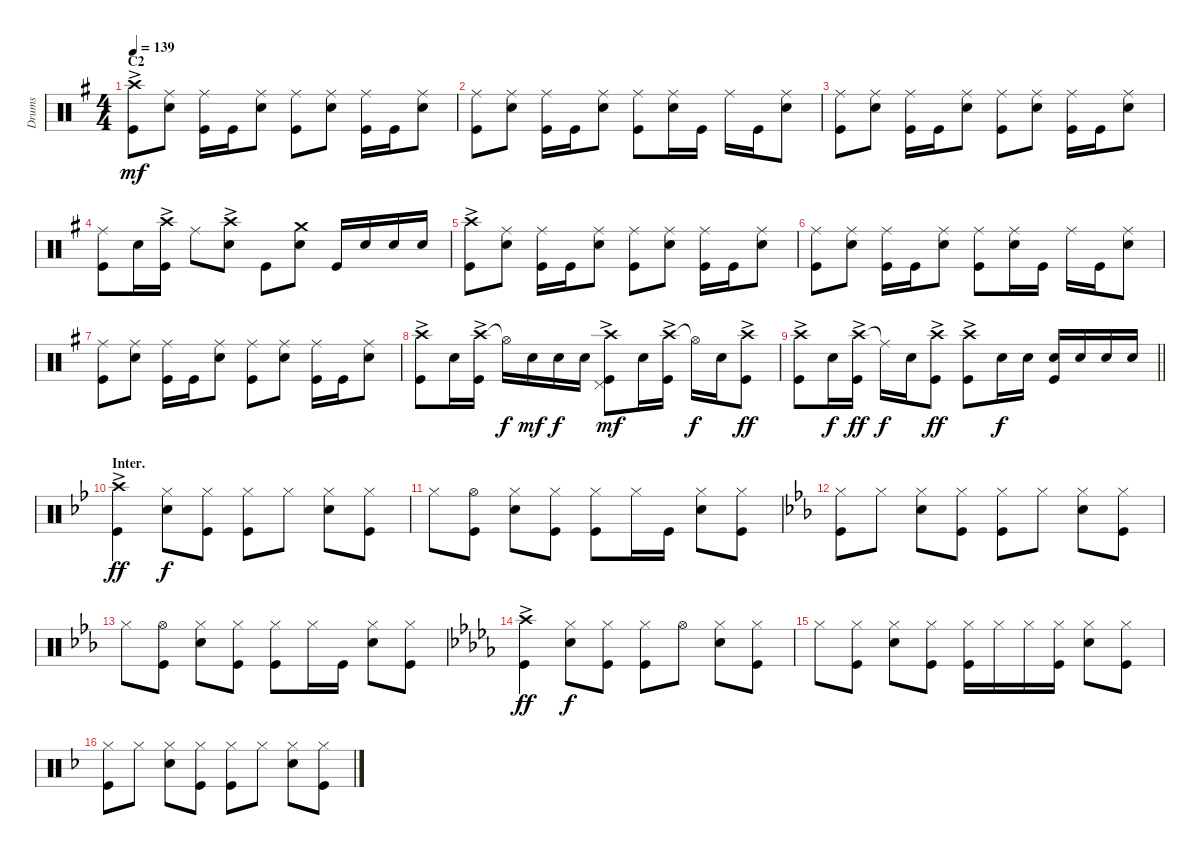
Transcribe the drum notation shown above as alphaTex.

\track ("Drums" "Drums") {instrument percussion}
\staff {score}
\articulation defaults
\ts (4 4)
\section ("" "C2")
\tempo 139
\clef neutral
\ks g
("Crash high (hit)"{ac} "Kick (hit)").8{dy mf} ("Ride (middle)" "Snare (hit) 2").8 ("Ride (middle)" "Kick (hit)").16 "Kick (hit)".16 ("Ride (middle)" "Snare (hit) 2").8 ("Ride (middle)" "Kick (hit)").8 ("Ride (middle)" "Snare (hit) 2").8 ("Ride (middle)" "Kick (hit)").16 "Kick (hit)".16 ("Ride (middle)" "Snare (hit) 2").8 |
("Ride (middle)" "Kick (hit)").8 ("Ride (middle)" "Snare (hit) 2").8 ("Ride (middle)" "Kick (hit)").16 "Kick (hit)".16 ("Ride (middle)" "Snare (hit) 2").8 ("Ride (middle)" "Kick (hit)").8 ("Ride (middle)" "Snare (hit) 2").16 "Kick (hit)".16 "Ride (middle)".16 "Kick (hit)".16 ("Ride (middle)" "Snare (hit) 2").8 |
("Ride (middle)" "Kick (hit)").8 ("Ride (middle)" "Snare (hit) 2").8 ("Ride (middle)" "Kick (hit)").16 "Kick (hit)".16 ("Ride (middle)" "Snare (hit) 2").8 ("Ride (middle)" "Kick (hit)").8 ("Ride (middle)" "Snare (hit) 2").8 ("Ride (middle)" "Kick (hit)").16 "Kick (hit)".16 ("Ride (middle)" "Snare (hit) 2").8 |
("Ride (middle)" "Kick (hit)").8 "Snare (hit) 2".16 ("Crash high (hit)"{ac} "Kick (hit)").16 "Ride (middle)".8 ("Crash high (hit)"{ac} "Snare (hit) 2").8 "Kick (hit)".8 ("Crash medium (hit)" "Snare (hit) 2").8 "Kick (hit)".16 "Snare (hit) 2".16 "Snare (hit) 2".16 "Snare (hit) 2".16 |
("Crash high (hit)"{ac} "Kick (hit)").8 ("Ride (middle)" "Snare (hit) 2").8 ("Ride (middle)" "Kick (hit)").16 "Kick (hit)".16 ("Ride (middle)" "Snare (hit) 2").8 ("Ride (middle)" "Kick (hit)").8 ("Ride (middle)" "Snare (hit) 2").8 ("Ride (middle)" "Kick (hit)").16 "Kick (hit)".16 ("Ride (middle)" "Snare (hit) 2").8 |
("Ride (middle)" "Kick (hit)").8 ("Ride (middle)" "Snare (hit) 2").8 ("Ride (middle)" "Kick (hit)").16 "Kick (hit)".16 ("Ride (middle)" "Snare (hit) 2").8 ("Ride (middle)" "Kick (hit)").8 ("Ride (middle)" "Snare (hit) 2").16 "Kick (hit)".16 "Ride (middle)".16 "Kick (hit)".16 ("Ride (middle)" "Snare (hit) 2").8 |
("Ride (middle)" "Kick (hit)").8 ("Ride (middle)" "Snare (hit) 2").8 ("Ride (middle)" "Kick (hit)").16 "Kick (hit)".16 ("Ride (middle)" "Snare (hit) 2").8 ("Ride (middle)" "Kick (hit)").8 ("Ride (middle)" "Snare (hit) 2").8 ("Ride (middle)" "Kick (hit)").16 "Kick (hit)".16 ("Ride (middle)" "Snare (hit) 2").8 |
("Crash high (hit)"{ac} "Kick (hit)").8 "Snare (hit) 2".16 ("Crash high (hit)"{ac} "Kick (hit)").16 "Hi-Hat (open)"{t}.16{dy f} "Snare (hit) 2".16{dy mf} "Snare (hit) 2".16{dy f} "Snare (hit) 2".16 ("Crash high (hit)"{ac} "Kick (hit)" "Pedal Hi-Hat (hit)").8{dy mf} "Snare (hit) 2".16 ("Crash high (hit)"{ac} "Kick (hit)").16 "Hi-Hat (open)"{t}.16{dy f} "Snare (hit) 2".16 ("Crash high (hit)"{ac} "Kick (hit)").8{dy ff} |
\barLineRight lightlight
("Crash high (hit)"{ac} "Kick (hit)").8 "Snare (hit) 2".16{dy f} ("Crash high (hit)"{ac} "Kick (hit)").16{dy ff} "Ride (middle)"{t}.16{dy f} "Snare (hit) 2".16 ("Crash high (hit)"{ac} "Kick (hit)").8{dy ff} ("Crash high (hit)"{ac} "Kick (hit)").8 "Snare (hit) 2".16{dy f} "Snare (hit) 2".16 ("Snare (hit) 2" "Kick (hit)").16 "Snare (hit) 2".16 "Snare (hit) 2".16 "Snare (hit) 2".16 |
\section ("" "Inter.")
\ks bb
("Crash high (hit)"{ac} "Kick (hit)").4{dy ff} ("Hi-Hat (closed)" "Snare (hit) 2").8{dy f} ("Hi-Hat (closed)" "Kick (hit)").8 ("Hi-Hat (closed)" "Kick (hit)").8 "Hi-Hat (closed)".8 ("Hi-Hat (closed)" "Snare (hit) 2").8 ("Hi-Hat (closed)" "Kick (hit)").8 |
"Hi-Hat (closed)".8 ("Hi-Hat (open)" "Kick (hit)").8 ("Hi-Hat (closed)" "Snare (hit) 2").8 ("Hi-Hat (closed)" "Kick (hit)").8 ("Hi-Hat (closed)" "Kick (hit)").8 "Hi-Hat (closed)".16 "Kick (hit)".16 ("Hi-Hat (closed)" "Snare (hit) 2").8 ("Hi-Hat (closed)" "Kick (hit)").8 |
\ks eb
("Hi-Hat (closed)" "Kick (hit)").8 "Hi-Hat (closed)".8 ("Hi-Hat (closed)" "Snare (hit) 2").8 ("Hi-Hat (closed)" "Kick (hit)").8 ("Hi-Hat (closed)" "Kick (hit)").8 "Hi-Hat (closed)".8 ("Hi-Hat (closed)" "Snare (hit) 2").8 ("Hi-Hat (closed)" "Kick (hit)").8 |
"Hi-Hat (closed)".8 ("Hi-Hat (open)" "Kick (hit)").8 ("Hi-Hat (closed)" "Snare (hit) 2").8 ("Hi-Hat (closed)" "Kick (hit)").8 ("Hi-Hat (closed)" "Kick (hit)").8 "Hi-Hat (closed)".16 "Kick (hit)".16 ("Hi-Hat (closed)" "Snare (hit) 2").8 ("Hi-Hat (closed)" "Kick (hit)").8 |
\ks db
("Crash high (hit)"{ac} "Kick (hit)").4{dy ff} ("Hi-Hat (closed)" "Snare (hit) 2").8{dy f} ("Hi-Hat (closed)" "Kick (hit)").8 ("Hi-Hat (closed)" "Kick (hit)").8 "Hi-Hat (open)".8 ("Hi-Hat (closed)" "Snare (hit) 2").8 ("Hi-Hat (closed)" "Kick (hit)").8 |
"Hi-Hat (closed)".8 ("Hi-Hat (closed)" "Kick (hit)").8 ("Hi-Hat (closed)" "Snare (hit) 2").8 ("Hi-Hat (closed)" "Kick (hit)").8 ("Hi-Hat (closed)" "Kick (hit)").16 "Hi-Hat (closed)".16 "Hi-Hat (closed)".16 ("Hi-Hat (closed)" "Kick (hit)").16 ("Hi-Hat (closed)" "Snare (hit) 2").8 ("Hi-Hat (closed)" "Kick (hit)").8 |
\ks f
("Hi-Hat (closed)" "Kick (hit)").8 "Hi-Hat (closed)".8 ("Hi-Hat (closed)" "Snare (hit) 2").8 ("Hi-Hat (closed)" "Kick (hit)").8 ("Hi-Hat (closed)" "Kick (hit)").8 "Hi-Hat (closed)".8 ("Hi-Hat (closed)" "Snare (hit) 2").8 ("Hi-Hat (closed)" "Kick (hit)").8
